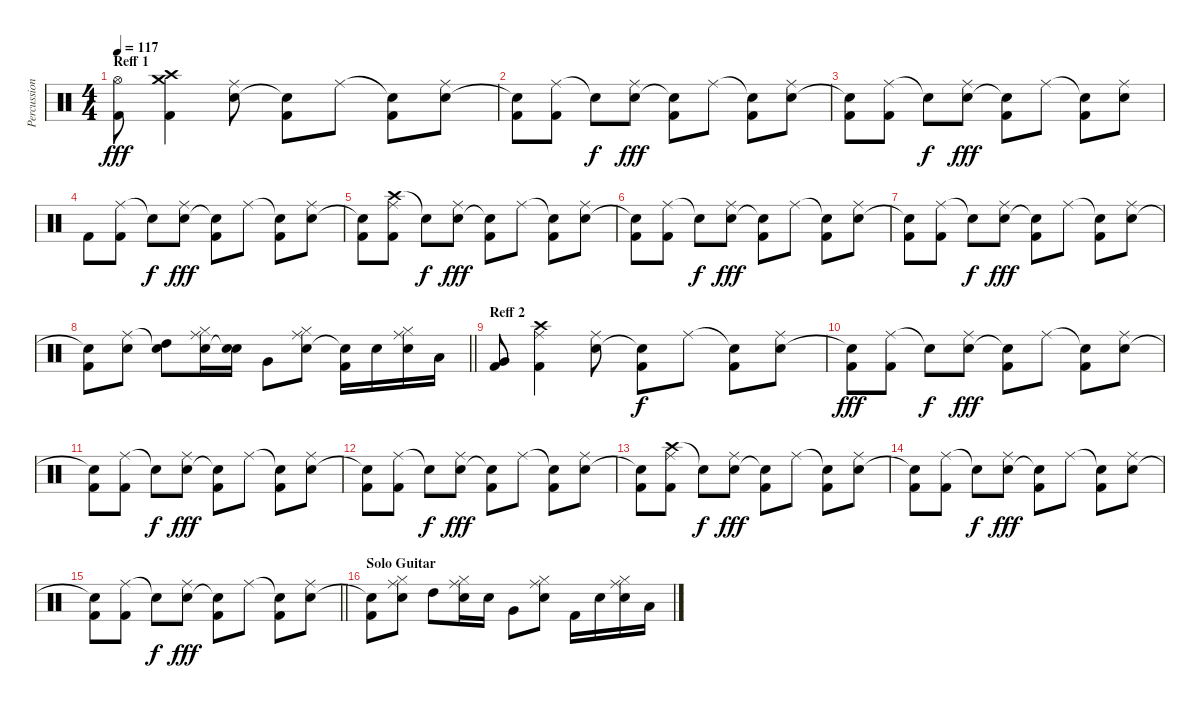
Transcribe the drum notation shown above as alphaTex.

\track ("Percussion 1" "Percussion") {instrument percussion}
\staff {score}
\articulation defaults
\ts (4 4)
\section ("" "Reff 1")
\tempo 117
\clef neutral
\ks c
("Hi-Hat (open)" "Kick (hit) 2").8{dy fff} ("Crash medium (hit)" "Crash high (hit)" "Kick (hit) 2").4 ("Electric Snare (hit)" "Ride (middle)").8 ("Snare (hit)"{t} "Kick (hit) 2").8 "Ride (middle)".8 ("Snare (hit)"{t} "Kick (hit) 2").8 ("Electric Snare (hit)" "Ride (middle)").8 |
("Snare (hit)"{t} "Kick (hit) 2").8 ("Ride (middle)" "Kick (hit) 2").8 "Snare (hit)"{t}.8{dy f} ("Electric Snare (hit)" "Ride (middle)").8{dy fff} ("Snare (hit)"{t} "Kick (hit) 2").8 "Ride (middle)".8 ("Snare (hit)"{t} "Kick (hit) 2").8 ("Electric Snare (hit)" "Ride (middle)").8 |
("Snare (hit)"{t} "Kick (hit) 2").8 ("Ride (middle)" "Kick (hit) 2").8 "Snare (hit)"{t}.8{dy f} ("Electric Snare (hit)" "Ride (middle)").8{dy fff} ("Snare (hit)"{t} "Kick (hit) 2").8 "Ride (middle)".8 ("Snare (hit)"{t} "Kick (hit) 2").8 ("Electric Snare (hit)" "Ride (middle)").8 |
"Kick (hit) 2".8 ("Ride (middle)" "Kick (hit) 2").8 "Snare (hit)"{t}.8{dy f} ("Electric Snare (hit)" "Ride (middle)").8{dy fff} ("Snare (hit)"{t} "Kick (hit) 2").8 "Ride (middle)".8 ("Snare (hit)"{t} "Kick (hit) 2").8 ("Electric Snare (hit)" "Ride (middle)").8 |
("Snare (hit)"{t} "Kick (hit) 2").8 ("Crash high (hit)" "Ride (middle)" "Kick (hit) 2").8 "Snare (hit)"{t}.8{dy f} ("Electric Snare (hit)" "Ride (middle)").8{dy fff} ("Snare (hit)"{t} "Kick (hit) 2").8 "Ride (middle)".8 ("Snare (hit)"{t} "Kick (hit) 2").8 ("Electric Snare (hit)" "Ride (middle)").8 |
("Snare (hit)"{t} "Kick (hit) 2").8 ("Ride (middle)" "Kick (hit) 2").8 "Snare (hit)"{t}.8{dy f} ("Electric Snare (hit)" "Ride (middle)").8{dy fff} ("Snare (hit)"{t} "Kick (hit) 2").8 "Ride (middle)".8 ("Snare (hit)"{t} "Kick (hit) 2").8 ("Electric Snare (hit)" "Ride (middle)").8 |
("Snare (hit)"{t} "Kick (hit) 2").8 ("Ride (middle)" "Kick (hit) 2").8 "Snare (hit)"{t}.8{dy f} ("Electric Snare (hit)" "Ride (middle)").8{dy fff} ("Snare (hit)"{t} "Kick (hit) 2").8 "Ride (middle)".8 ("Snare (hit)"{t} "Kick (hit) 2").8 ("Electric Snare (hit)" "Ride (middle)").8 |
\barLineRight lightlight
("Snare (hit)"{t} "Kick (hit) 2").8 ("Electric Snare (hit)" "Ride (middle)").8 ("High Tom (hit)" "Snare (hit)"{t}).8 ("Hi-Hat (closed)" "Electric Snare (hit)" "Ride (middle)").16 ("Electric Snare (hit)" "Snare (hit)"{t}).16 "Very Low Tom (hit)".8 ("Electric Snare (hit)" "Hi-Hat (closed)" "Ride (middle)").8 ("Snare (hit)"{t} "Kick (hit) 2").16 "Electric Snare (hit)".16 ("Electric Snare (hit)" "Hi-Hat (closed)" "Ride (middle)").16 "Low Tom (hit)".16 |
\section ("" "Reff 2")
("Very Low Tom (hit)" "Kick (hit) 2").8 ("Crash high (hit)" "Ride (middle)" "Kick (hit) 2").4 ("Electric Snare (hit)" "Ride (middle)").8 ("Snare (hit)"{t} "Kick (hit) 2").8{dy f} "Ride (middle)".8 ("Snare (hit)"{t} "Kick (hit) 2").8 ("Electric Snare (hit)" "Ride (middle)").8 |
("Snare (hit)"{t} "Kick (hit) 2").8{dy fff} ("Ride (middle)" "Kick (hit) 2").8 "Snare (hit)"{t}.8{dy f} ("Electric Snare (hit)" "Ride (middle)").8{dy fff} ("Snare (hit)"{t} "Kick (hit) 2").8 "Ride (middle)".8 ("Snare (hit)"{t} "Kick (hit) 2").8 ("Electric Snare (hit)" "Ride (middle)").8 |
("Snare (hit)"{t} "Kick (hit) 2").8 ("Ride (middle)" "Kick (hit) 2").8 "Snare (hit)"{t}.8{dy f} ("Electric Snare (hit)" "Ride (middle)").8{dy fff} ("Snare (hit)"{t} "Kick (hit) 2").8 "Ride (middle)".8 ("Snare (hit)"{t} "Kick (hit) 2").8 ("Electric Snare (hit)" "Ride (middle)").8 |
("Snare (hit)"{t} "Kick (hit) 2").8 ("Ride (middle)" "Kick (hit) 2").8 "Snare (hit)"{t}.8{dy f} ("Electric Snare (hit)" "Ride (middle)").8{dy fff} ("Snare (hit)"{t} "Kick (hit) 2").8 "Ride (middle)".8 ("Snare (hit)"{t} "Kick (hit) 2").8 ("Electric Snare (hit)" "Ride (middle)").8 |
("Snare (hit)"{t} "Kick (hit) 2").8 ("Crash high (hit)" "Ride (middle)" "Kick (hit) 2").8 "Snare (hit)"{t}.8{dy f} ("Electric Snare (hit)" "Ride (middle)").8{dy fff} ("Snare (hit)"{t} "Kick (hit) 2").8 "Ride (middle)".8 ("Snare (hit)"{t} "Kick (hit) 2").8 ("Electric Snare (hit)" "Ride (middle)").8 |
("Snare (hit)"{t} "Kick (hit) 2").8 ("Ride (middle)" "Kick (hit) 2").8 "Snare (hit)"{t}.8{dy f} ("Electric Snare (hit)" "Ride (middle)").8{dy fff} ("Snare (hit)"{t} "Kick (hit) 2").8 "Ride (middle)".8 ("Snare (hit)"{t} "Kick (hit) 2").8 ("Electric Snare (hit)" "Ride (middle)").8 |
\barLineRight lightlight
("Snare (hit)"{t} "Kick (hit) 2").8 ("Ride (middle)" "Kick (hit) 2").8 "Snare (hit)"{t}.8{dy f} ("Electric Snare (hit)" "Ride (middle)").8{dy fff} ("Snare (hit)"{t} "Kick (hit) 2").8 "Ride (middle)".8 ("Snare (hit)"{t} "Kick (hit) 2").8 ("Electric Snare (hit)" "Ride (middle)").8 |
\section ("" "Solo Guitar")
("Snare (hit)"{t} "Kick (hit) 2").8 ("Electric Snare (hit)" "Hi-Hat (closed)" "Ride (middle)").8 "High Tom (hit)".8 ("Electric Snare (hit)" "Hi-Hat (closed)" "Ride (middle)").16 "Electric Snare (hit)".16 "Very Low Tom (hit)".8 ("Electric Snare (hit)" "Hi-Hat (closed)" "Ride (middle)").8 "Kick (hit) 2".16 "Electric Snare (hit)".16 ("Electric Snare (hit)" "Hi-Hat (closed)" "Ride (middle)").16 "Low Tom (hit)".16
